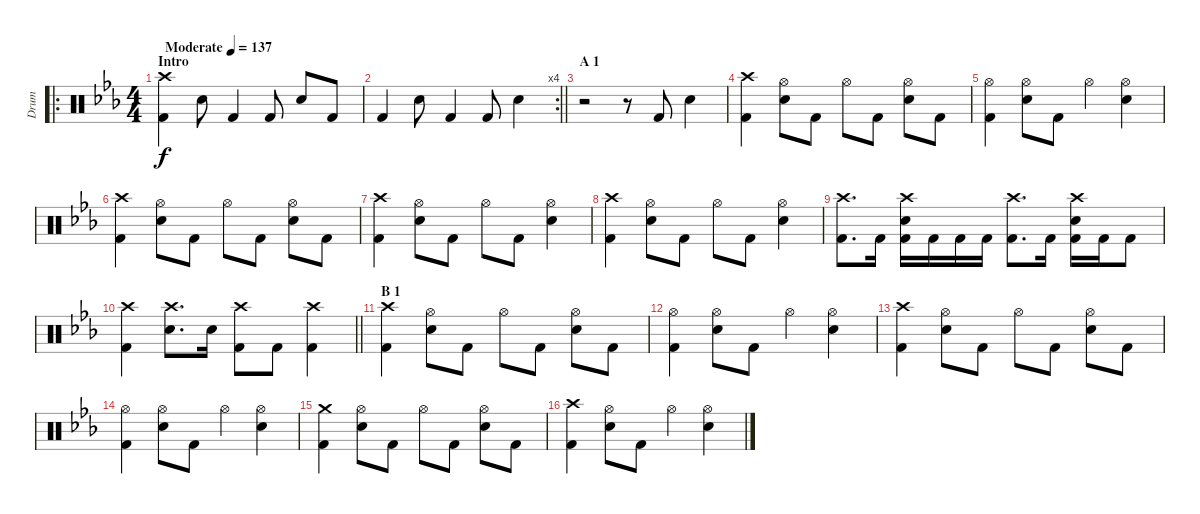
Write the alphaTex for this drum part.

\track ("Drum" "Drum") {instrument percussion}
\staff {score}
\articulation defaults
\ro
\ts (4 4)
\section ("" "Intro")
\tempo (137 "Moderate")
\clef neutral
\ks eb
("Crash high (hit)" "Kick (hit) 2").4{dy f} "Snare (hit) 2".8 "Kick (hit) 2".4 "Kick (hit) 2".8 "Snare (hit) 2".8 "Kick (hit) 2".8 |
\rc 4
\barLineRight lightlight "Kick (hit) 2".4 "Snare (hit) 2".8 "Kick (hit) 2".4 "Kick (hit) 2".8 "Snare (hit) 2".4
|
\section ("" "A 1")
r.2 r.8 "Kick (hit) 2".8 "Snare (hit) 2".4 |
("Crash high (hit)" "Kick (hit) 2").4 ("Hi-Hat (open)" "Snare (hit) 2").8 "Kick (hit) 2".8 "Hi-Hat (open)".8 "Kick (hit) 2".8 ("Hi-Hat (open)" "Snare (hit) 2").8 "Kick (hit) 2".8 |
("Hi-Hat (open)" "Kick (hit) 2").4 ("Hi-Hat (open)" "Snare (hit) 2").8 "Kick (hit) 2".8 "Hi-Hat (open)".4 ("Hi-Hat (open)" "Snare (hit) 2").4 |
("Crash high (hit)" "Kick (hit) 2").4 ("Hi-Hat (open)" "Snare (hit) 2").8 "Kick (hit) 2".8 "Hi-Hat (open)".8 "Kick (hit) 2".8 ("Hi-Hat (open)" "Snare (hit) 2").8 "Kick (hit) 2".8 |
("Crash high (hit)" "Kick (hit) 2").4 ("Hi-Hat (open)" "Snare (hit) 2").8 "Kick (hit) 2".8 "Hi-Hat (open)".8 "Kick (hit) 2".8 ("Hi-Hat (open)" "Snare (hit) 2").4 |
("Crash high (hit)" "Kick (hit) 2").4 ("Hi-Hat (open)" "Snare (hit) 2").8 "Kick (hit) 2".8 "Hi-Hat (open)".8 "Kick (hit) 2".8 ("Hi-Hat (open)" "Snare (hit) 2").4 |
("Crash high (hit)" "Kick (hit) 2").8{d} "Kick (hit) 2".16 ("Crash high (hit)" "Snare (hit) 2" "Kick (hit) 2").16 "Kick (hit) 2".16 "Kick (hit) 2".16 "Kick (hit) 2".16 ("Crash high (hit)" "Kick (hit) 2").8{d} "Kick (hit) 2".16 ("Crash high (hit)" "Snare (hit) 2" "Kick (hit) 2").16 "Kick (hit) 2".16 "Kick (hit) 2".8 |
\barLineRight lightlight
("Crash high (hit)" "Kick (hit) 2").4 ("Crash high (hit)" "Snare (hit) 2").8{d} "Snare (hit) 2".16 ("Crash high (hit)" "Kick (hit) 2").8 "Kick (hit) 2".8 ("Crash high (hit)" "Kick (hit) 2").4 |
\section ("" "B 1")
("Crash high (hit)" "Kick (hit) 2").4 ("Hi-Hat (open)" "Snare (hit) 2").8 "Kick (hit) 2".8 "Hi-Hat (open)".8 "Kick (hit) 2".8 ("Hi-Hat (open)" "Snare (hit) 2").8 "Kick (hit) 2".8 |
("Hi-Hat (open)" "Kick (hit) 2").4 ("Hi-Hat (open)" "Snare (hit) 2").8 "Kick (hit) 2".8 "Hi-Hat (open)".4 ("Hi-Hat (open)" "Snare (hit) 2").4 |
("Crash high (hit)" "Kick (hit) 2").4 ("Hi-Hat (open)" "Snare (hit) 2").8 "Kick (hit) 2".8 "Hi-Hat (open)".8 "Kick (hit) 2".8 ("Hi-Hat (open)" "Snare (hit) 2").8 "Kick (hit) 2".8 |
("Hi-Hat (open)" "Kick (hit) 2").4 ("Hi-Hat (open)" "Snare (hit) 2").8 "Kick (hit) 2".8 "Hi-Hat (open)".4 ("Hi-Hat (open)" "Snare (hit) 2").4 |
("Crash medium (hit)" "Kick (hit) 2").4 ("Hi-Hat (open)" "Snare (hit) 2").8 "Kick (hit) 2".8 "Hi-Hat (open)".8 "Kick (hit) 2".8 ("Hi-Hat (open)" "Snare (hit) 2").8 "Kick (hit) 2".8 |
("Crash high (hit)" "Kick (hit) 2").4 ("Hi-Hat (open)" "Snare (hit) 2").8 "Kick (hit) 2".8 "Hi-Hat (open)".4 ("Hi-Hat (open)" "Snare (hit) 2").4
